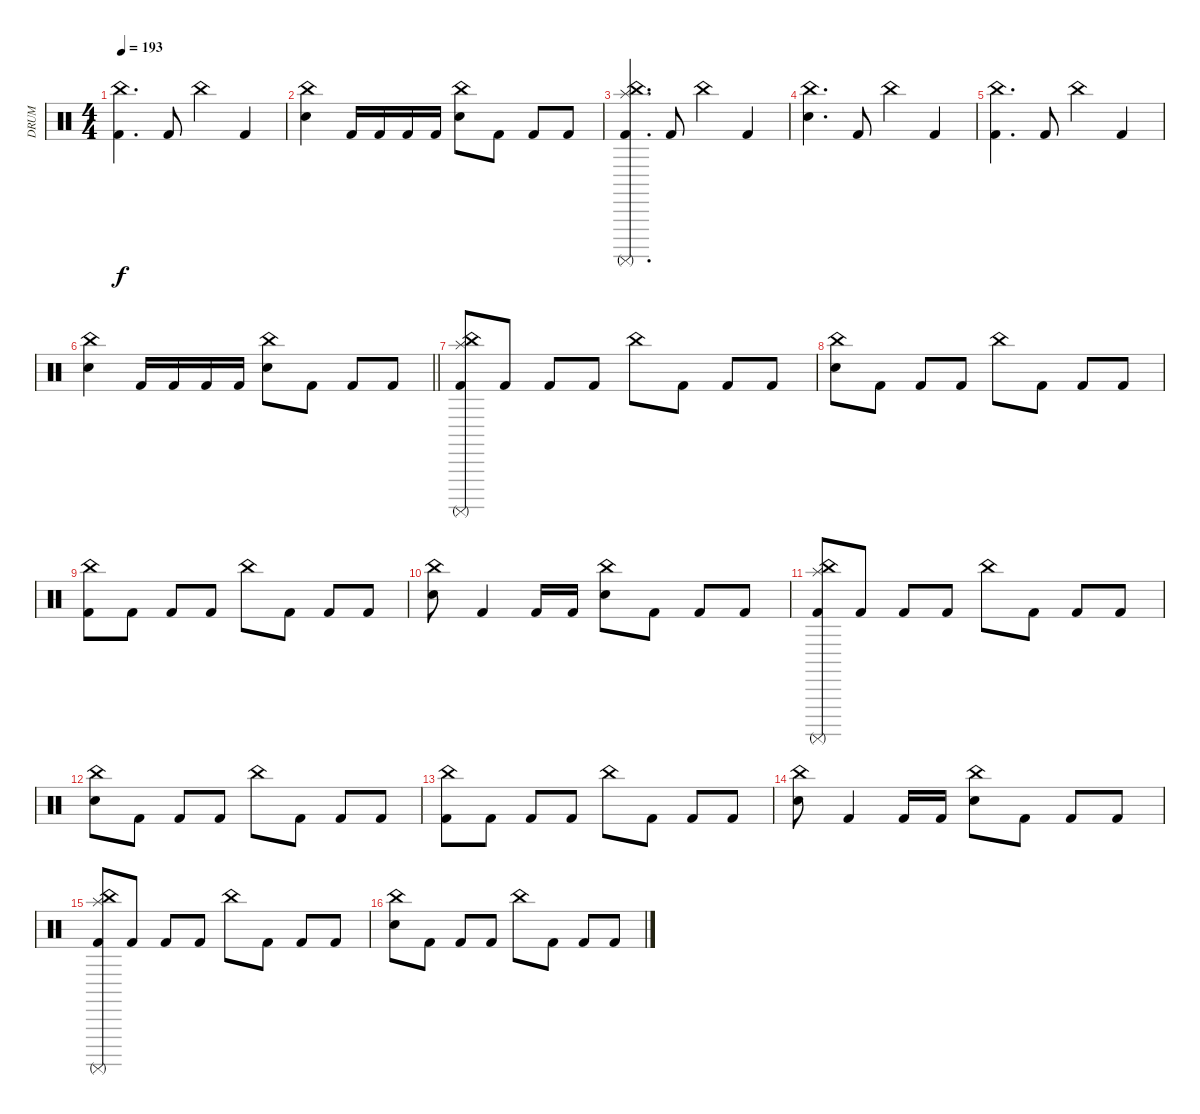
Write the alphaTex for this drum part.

\track ("DRUM" "DRUM") {instrument percussion bank 102}
\staff {score}
\articulation defaults
\ts (4 4)
\tempo 193
\clef neutral
\ks c
("China (hit)" "Kick (hit) 2").4{d dy f} "Kick (hit) 2".8 "China (hit)".4 "Kick (hit) 2".4 |
("China (hit)" "Electric Snare (hit)").4 "Kick (hit) 2".16 "Kick (hit) 2".16 "Kick (hit) 2".16 "Kick (hit) 2".16 ("China (hit)" "Electric Snare (hit)").8 "Kick (hit) 2".8 "Kick (hit) 2".8 "Kick (hit) 2".8 |
("China (hit)" "Splash (hit)" "Surdo (mute)" "Kick (hit) 2").4{d} "Kick (hit) 2".8 "China (hit)".4 "Kick (hit) 2".4 |
("China (hit)" "Electric Snare (hit)").4{d} "Kick (hit) 2".8 "China (hit)".4 "Kick (hit) 2".4 |
("China (hit)" "Kick (hit) 2").4{d} "Kick (hit) 2".8 "China (hit)".4 "Kick (hit) 2".4 |
\barLineRight lightlight
("China (hit)" "Electric Snare (hit)").4 "Kick (hit) 2".16 "Kick (hit) 2".16 "Kick (hit) 2".16 "Kick (hit) 2".16 ("China (hit)" "Electric Snare (hit)").8 "Kick (hit) 2".8 "Kick (hit) 2".8 "Kick (hit) 2".8 |
("China (hit)" "Splash (hit)" "Surdo (mute)" "Kick (hit) 2").8 "Kick (hit) 2".8 "Kick (hit) 2".8 "Kick (hit) 2".8 "China (hit)".8 "Kick (hit) 2".8 "Kick (hit) 2".8 "Kick (hit) 2".8 |
("China (hit)" "Electric Snare (hit)").8 "Kick (hit) 2".8 "Kick (hit) 2".8 "Kick (hit) 2".8 "China (hit)".8 "Kick (hit) 2".8 "Kick (hit) 2".8 "Kick (hit) 2".8 |
("China (hit)" "Kick (hit) 2").8 "Kick (hit) 2".8 "Kick (hit) 2".8 "Kick (hit) 2".8 "China (hit)".8 "Kick (hit) 2".8 "Kick (hit) 2".8 "Kick (hit) 2".8 |
("China (hit)" "Electric Snare (hit)").8 "Kick (hit) 2".4 "Kick (hit) 2".16 "Kick (hit) 2".16 ("China (hit)" "Electric Snare (hit)").8 "Kick (hit) 2".8 "Kick (hit) 2".8 "Kick (hit) 2".8 |
("China (hit)" "Splash (hit)" "Surdo (mute)" "Kick (hit) 2").8 "Kick (hit) 2".8 "Kick (hit) 2".8 "Kick (hit) 2".8 "China (hit)".8 "Kick (hit) 2".8 "Kick (hit) 2".8 "Kick (hit) 2".8 |
("China (hit)" "Electric Snare (hit)").8 "Kick (hit) 2".8 "Kick (hit) 2".8 "Kick (hit) 2".8 "China (hit)".8 "Kick (hit) 2".8 "Kick (hit) 2".8 "Kick (hit) 2".8 |
("China (hit)" "Kick (hit) 2").8 "Kick (hit) 2".8 "Kick (hit) 2".8 "Kick (hit) 2".8 "China (hit)".8 "Kick (hit) 2".8 "Kick (hit) 2".8 "Kick (hit) 2".8 |
("China (hit)" "Electric Snare (hit)").8 "Kick (hit) 2".4 "Kick (hit) 2".16 "Kick (hit) 2".16 ("China (hit)" "Electric Snare (hit)").8 "Kick (hit) 2".8 "Kick (hit) 2".8 "Kick (hit) 2".8 |
("China (hit)" "Splash (hit)" "Surdo (mute)" "Kick (hit) 2").8 "Kick (hit) 2".8 "Kick (hit) 2".8 "Kick (hit) 2".8 "China (hit)".8 "Kick (hit) 2".8 "Kick (hit) 2".8 "Kick (hit) 2".8 |
("China (hit)" "Electric Snare (hit)").8 "Kick (hit) 2".8 "Kick (hit) 2".8 "Kick (hit) 2".8 "China (hit)".8 "Kick (hit) 2".8 "Kick (hit) 2".8 "Kick (hit) 2".8
